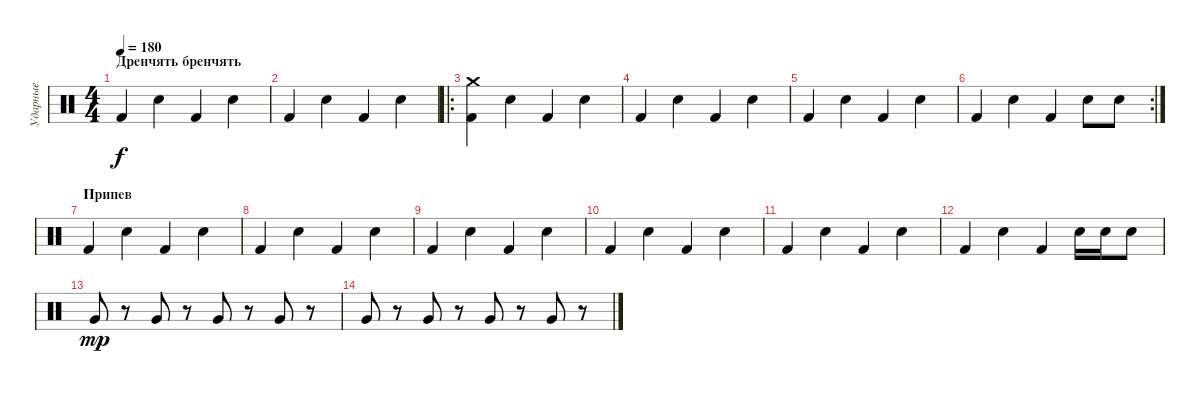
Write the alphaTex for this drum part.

\track ("Ударные" "Ударные") {instrument percussion}
\staff {score}
\articulation defaults
\ts (4 4)
\section ("" "Дренчять бренчять")
\tempo 180
\clef neutral
\ks c "Kick (hit) 2".4{dy f} "Snare (hit) 2".4 "Kick (hit) 2".4 "Snare (hit) 2".4
|
"Kick (hit) 2".4 "Snare (hit) 2".4 "Kick (hit) 2".4 "Snare (hit) 2".4 |
\ro
("Kick (hit) 2" "Crash medium (hit)").4 "Snare (hit) 2".4 "Kick (hit) 2".4 "Snare (hit) 2".4 |
"Kick (hit) 2".4 "Snare (hit) 2".4 "Kick (hit) 2".4 "Snare (hit) 2".4 |
"Kick (hit) 2".4 "Snare (hit) 2".4 "Kick (hit) 2".4 "Snare (hit) 2".4 |
\rc 2 "Kick (hit) 2".4 "Snare (hit) 2".4 "Kick (hit) 2".4 "Snare (hit) 2".8 "Snare (hit) 2".8
|
\section ("" "Припев")
"Kick (hit) 2".4 "Snare (hit) 2".4 "Kick (hit) 2".4 "Snare (hit) 2".4 |
"Kick (hit) 2".4 "Snare (hit) 2".4 "Kick (hit) 2".4 "Snare (hit) 2".4 |
"Kick (hit) 2".4 "Snare (hit) 2".4 "Kick (hit) 2".4 "Snare (hit) 2".4 |
"Kick (hit) 2".4 "Snare (hit) 2".4 "Kick (hit) 2".4 "Snare (hit) 2".4 |
"Kick (hit) 2".4 "Snare (hit) 2".4 "Kick (hit) 2".4 "Snare (hit) 2".4 |
"Kick (hit) 2".4 "Snare (hit) 2".4 "Kick (hit) 2".4 "Snare (hit) 2".16 "Snare (hit) 2".16 "Snare (hit) 2".8 |
"Very Low Tom (hit)".8{dy mp} r.8 "Very Low Tom (hit)".8 r.8 "Very Low Tom (hit)".8 r.8 "Very Low Tom (hit)".8 r.8 |
"Very Low Tom (hit)".8 r.8 "Very Low Tom (hit)".8 r.8 "Very Low Tom (hit)".8 r.8 "Very Low Tom (hit)".8 r.8
